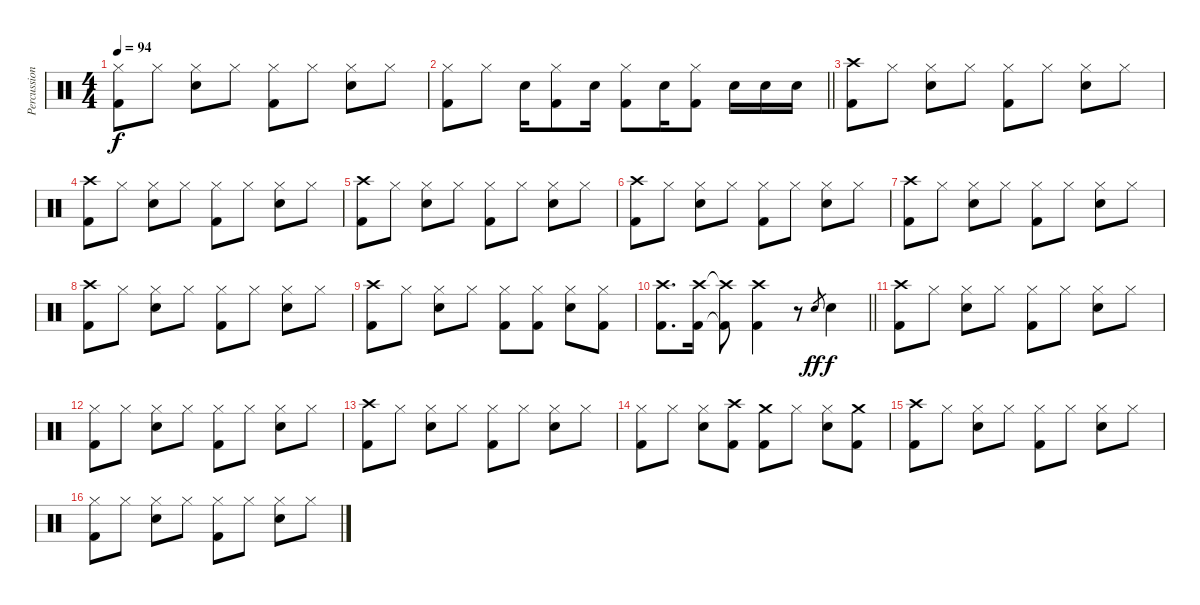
\track ("Percussion" "Percussion") {instrument percussion}
\staff {score}
\articulation defaults
\ts (4 4)
\tempo 94
\clef neutral
\ks c
("Hi-Hat (closed)" "Kick (hit) 2").8{dy f} "Hi-Hat (closed)".8 ("Hi-Hat (closed)" "Snare (hit) 2").8 "Hi-Hat (closed)".8 ("Hi-Hat (closed)" "Kick (hit) 2").8 "Hi-Hat (closed)".8 ("Hi-Hat (closed)" "Snare (hit) 2").8 "Hi-Hat (closed)".8 |
\barLineRight lightlight
("Hi-Hat (closed)" "Kick (hit) 2").8 "Hi-Hat (closed)".8 "Snare (hit) 2".16 ("Hi-Hat (closed)" "Kick (hit) 2").8 "Snare (hit) 2".16 ("Hi-Hat (closed)" "Kick (hit) 2").8 "Snare (hit) 2".16 ("Hi-Hat (closed)" "Kick (hit) 2").8 "Snare (hit) 2".16 "Snare (hit) 2".16 "Snare (hit) 2".16 |
("Crash high (hit)" "Kick (hit) 2").8 "Hi-Hat (closed)".8 ("Hi-Hat (closed)" "Snare (hit) 2").8 "Hi-Hat (closed)".8 ("Hi-Hat (closed)" "Kick (hit) 2").8 "Hi-Hat (closed)".8 ("Hi-Hat (closed)" "Snare (hit) 2").8 "Hi-Hat (closed)".8 |
("Crash high (hit)" "Kick (hit) 2").8 "Hi-Hat (closed)".8 ("Hi-Hat (closed)" "Snare (hit) 2").8 "Hi-Hat (closed)".8 ("Hi-Hat (closed)" "Kick (hit) 2").8 "Hi-Hat (closed)".8 ("Hi-Hat (closed)" "Snare (hit) 2").8 "Hi-Hat (closed)".8 |
("Crash high (hit)" "Kick (hit) 2").8 "Hi-Hat (closed)".8 ("Hi-Hat (closed)" "Snare (hit) 2").8 "Hi-Hat (closed)".8 ("Hi-Hat (closed)" "Kick (hit) 2").8 "Hi-Hat (closed)".8 ("Hi-Hat (closed)" "Snare (hit) 2").8 "Hi-Hat (closed)".8 |
("Crash high (hit)" "Kick (hit) 2").8 "Hi-Hat (closed)".8 ("Hi-Hat (closed)" "Snare (hit) 2").8 "Hi-Hat (closed)".8 ("Hi-Hat (closed)" "Kick (hit) 2").8 "Hi-Hat (closed)".8 ("Hi-Hat (closed)" "Snare (hit) 2").8 "Hi-Hat (closed)".8 |
("Crash high (hit)" "Kick (hit) 2").8 "Hi-Hat (closed)".8 ("Hi-Hat (closed)" "Snare (hit) 2").8 "Hi-Hat (closed)".8 ("Hi-Hat (closed)" "Kick (hit) 2").8 "Hi-Hat (closed)".8 ("Hi-Hat (closed)" "Snare (hit) 2").8 "Hi-Hat (closed)".8 |
("Crash high (hit)" "Kick (hit) 2").8 "Hi-Hat (closed)".8 ("Hi-Hat (closed)" "Snare (hit) 2").8 "Hi-Hat (closed)".8 ("Hi-Hat (closed)" "Kick (hit) 2").8 "Hi-Hat (closed)".8 ("Hi-Hat (closed)" "Snare (hit) 2").8 "Hi-Hat (closed)".8 |
("Crash high (hit)" "Kick (hit) 2").8 "Hi-Hat (closed)".8 ("Hi-Hat (closed)" "Snare (hit) 2").8 "Hi-Hat (closed)".8 ("Hi-Hat (closed)" "Kick (hit) 2").8 ("Hi-Hat (closed)" "Kick (hit) 2").8 ("Hi-Hat (closed)" "Snare (hit) 2").8 ("Hi-Hat (closed)" "Kick (hit) 2").8 |
\barLineRight lightlight
("Crash high (hit)" "Kick (hit) 2").8{d} ("Crash high (hit)" "Kick (hit) 2").16 ("Crash high (hit)"{t} "Kick (hit) 2"{t}).8 ("Crash high (hit)" "Kick (hit) 2").4 r.8 "Snare (hit) 2".8{gr dy ff} "Snare (hit) 2".4{dy f} |
("Crash high (hit)" "Kick (hit) 2").8 "Hi-Hat (closed)".8 ("Hi-Hat (closed)" "Snare (hit) 2").8 "Hi-Hat (closed)".8 ("Hi-Hat (closed)" "Kick (hit) 2").8 "Hi-Hat (closed)".8 ("Hi-Hat (closed)" "Snare (hit) 2").8 "Hi-Hat (closed)".8 |
("Hi-Hat (closed)" "Kick (hit) 2").8 "Hi-Hat (closed)".8 ("Hi-Hat (closed)" "Snare (hit) 2").8 "Hi-Hat (closed)".8 ("Hi-Hat (closed)" "Kick (hit) 2").8 "Hi-Hat (closed)".8 ("Hi-Hat (closed)" "Snare (hit) 2").8 "Hi-Hat (closed)".8 |
("Crash high (hit)" "Kick (hit) 2").8 "Hi-Hat (closed)".8 ("Hi-Hat (closed)" "Snare (hit) 2").8 "Hi-Hat (closed)".8 ("Hi-Hat (closed)" "Kick (hit) 2").8 "Hi-Hat (closed)".8 ("Hi-Hat (closed)" "Snare (hit) 2").8 "Hi-Hat (closed)".8 |
("Hi-Hat (closed)" "Kick (hit) 2").8 "Hi-Hat (closed)".8 ("Hi-Hat (closed)" "Snare (hit) 2").8 ("Crash high (hit)" "Kick (hit) 2").8 ("Crash medium (hit)" "Kick (hit) 2").8 "Hi-Hat (closed)".8 ("Hi-Hat (closed)" "Snare (hit) 2").8 ("Crash medium (hit)" "Kick (hit) 2").8 |
("Crash high (hit)" "Kick (hit) 2").8 "Hi-Hat (closed)".8 ("Hi-Hat (closed)" "Snare (hit) 2").8 "Hi-Hat (closed)".8 ("Hi-Hat (closed)" "Kick (hit) 2").8 "Hi-Hat (closed)".8 ("Hi-Hat (closed)" "Snare (hit) 2").8 "Hi-Hat (closed)".8 |
("Hi-Hat (closed)" "Kick (hit) 2").8 "Hi-Hat (closed)".8 ("Hi-Hat (closed)" "Snare (hit) 2").8 "Hi-Hat (closed)".8 ("Hi-Hat (closed)" "Kick (hit) 2").8 "Hi-Hat (closed)".8 ("Hi-Hat (closed)" "Snare (hit) 2").8 "Hi-Hat (closed)".8
